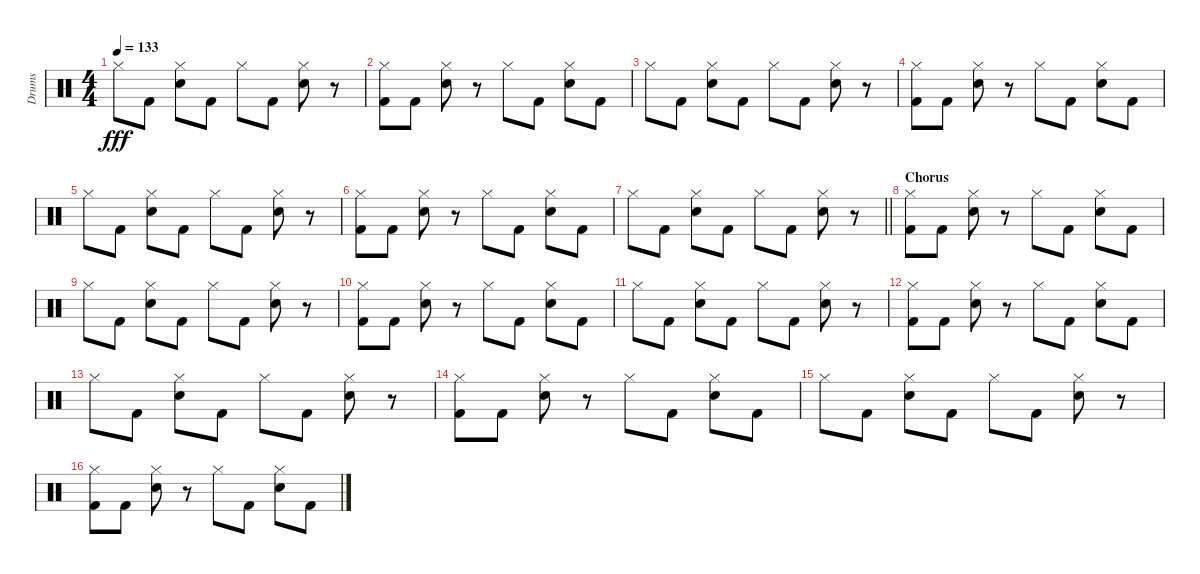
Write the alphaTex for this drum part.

\track ("Drums" "Drums") {instrument percussion}
\staff {score}
\articulation defaults
\ts (4 4)
\tempo 133
\clef neutral
\ks c "Hi-Hat (closed)".8{dy fff} "Kick (hit) 2".8
("Hi-Hat (closed)" "Snare (hit) 2").8 "Kick (hit) 2".8 "Hi-Hat (closed)".8 "Kick (hit) 2".8 ("Hi-Hat (closed)" "Snare (hit) 2").8 r.8 |
("Hi-Hat (closed)" "Kick (hit) 2").8 "Kick (hit) 2".8 ("Hi-Hat (closed)" "Snare (hit) 2").8 r.8 "Hi-Hat (closed)".8 "Kick (hit) 2".8 ("Hi-Hat (closed)" "Snare (hit) 2").8 "Kick (hit) 2".8 |
"Hi-Hat (closed)".8 "Kick (hit) 2".8 ("Hi-Hat (closed)" "Snare (hit) 2").8 "Kick (hit) 2".8 "Hi-Hat (closed)".8 "Kick (hit) 2".8 ("Hi-Hat (closed)" "Snare (hit) 2").8 r.8 |
("Hi-Hat (closed)" "Kick (hit) 2").8 "Kick (hit) 2".8 ("Hi-Hat (closed)" "Snare (hit) 2").8 r.8 "Hi-Hat (closed)".8 "Kick (hit) 2".8 ("Hi-Hat (closed)" "Snare (hit) 2").8 "Kick (hit) 2".8 |
"Hi-Hat (closed)".8 "Kick (hit) 2".8 ("Hi-Hat (closed)" "Snare (hit) 2").8 "Kick (hit) 2".8 "Hi-Hat (closed)".8 "Kick (hit) 2".8 ("Hi-Hat (closed)" "Snare (hit) 2").8 r.8 |
("Hi-Hat (closed)" "Kick (hit) 2").8 "Kick (hit) 2".8 ("Hi-Hat (closed)" "Snare (hit) 2").8 r.8 "Hi-Hat (closed)".8 "Kick (hit) 2".8 ("Hi-Hat (closed)" "Snare (hit) 2").8 "Kick (hit) 2".8 |
\barLineRight lightlight "Hi-Hat (closed)".8 "Kick (hit) 2".8
("Hi-Hat (closed)" "Snare (hit) 2").8 "Kick (hit) 2".8 "Hi-Hat (closed)".8 "Kick (hit) 2".8 ("Hi-Hat (closed)" "Snare (hit) 2").8 r.8 |
\section ("" "Chorus")
("Hi-Hat (closed)" "Kick (hit) 2").8 "Kick (hit) 2".8 ("Hi-Hat (closed)" "Snare (hit) 2").8 r.8 "Hi-Hat (closed)".8 "Kick (hit) 2".8 ("Hi-Hat (closed)" "Snare (hit) 2").8 "Kick (hit) 2".8 |
"Hi-Hat (closed)".8 "Kick (hit) 2".8 ("Hi-Hat (closed)" "Snare (hit) 2").8 "Kick (hit) 2".8 "Hi-Hat (closed)".8 "Kick (hit) 2".8 ("Hi-Hat (closed)" "Snare (hit) 2").8 r.8 |
("Hi-Hat (closed)" "Kick (hit) 2").8 "Kick (hit) 2".8 ("Hi-Hat (closed)" "Snare (hit) 2").8 r.8 "Hi-Hat (closed)".8 "Kick (hit) 2".8 ("Hi-Hat (closed)" "Snare (hit) 2").8 "Kick (hit) 2".8 |
"Hi-Hat (closed)".8 "Kick (hit) 2".8 ("Hi-Hat (closed)" "Snare (hit) 2").8 "Kick (hit) 2".8 "Hi-Hat (closed)".8 "Kick (hit) 2".8 ("Hi-Hat (closed)" "Snare (hit) 2").8 r.8 |
("Hi-Hat (closed)" "Kick (hit) 2").8 "Kick (hit) 2".8 ("Hi-Hat (closed)" "Snare (hit) 2").8 r.8 "Hi-Hat (closed)".8 "Kick (hit) 2".8 ("Hi-Hat (closed)" "Snare (hit) 2").8 "Kick (hit) 2".8 |
"Hi-Hat (closed)".8 "Kick (hit) 2".8 ("Hi-Hat (closed)" "Snare (hit) 2").8 "Kick (hit) 2".8 "Hi-Hat (closed)".8 "Kick (hit) 2".8 ("Hi-Hat (closed)" "Snare (hit) 2").8 r.8 |
("Hi-Hat (closed)" "Kick (hit) 2").8 "Kick (hit) 2".8 ("Hi-Hat (closed)" "Snare (hit) 2").8 r.8 "Hi-Hat (closed)".8 "Kick (hit) 2".8 ("Hi-Hat (closed)" "Snare (hit) 2").8 "Kick (hit) 2".8 |
"Hi-Hat (closed)".8 "Kick (hit) 2".8 ("Hi-Hat (closed)" "Snare (hit) 2").8 "Kick (hit) 2".8 "Hi-Hat (closed)".8 "Kick (hit) 2".8 ("Hi-Hat (closed)" "Snare (hit) 2").8 r.8 |
("Hi-Hat (closed)" "Kick (hit) 2").8 "Kick (hit) 2".8 ("Hi-Hat (closed)" "Snare (hit) 2").8 r.8 "Hi-Hat (closed)".8 "Kick (hit) 2".8 ("Hi-Hat (closed)" "Snare (hit) 2").8 "Kick (hit) 2".8
